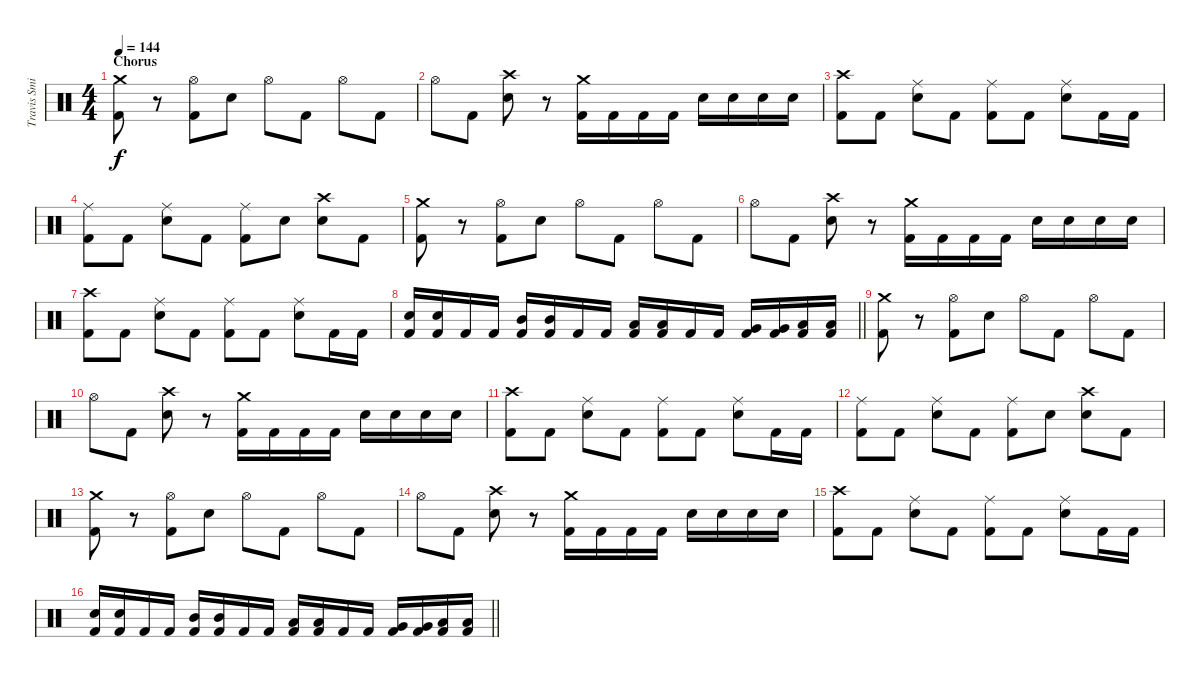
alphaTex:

\track ("Travis Smith" "Travis Smi") {instrument percussion}
\staff {score}
\articulation defaults
\ts (4 4)
\section ("" "Chorus")
\tempo 144
\clef neutral
\ks c
("Crash medium (hit)" "Kick (hit) 2").8{dy f} r.8 ("Hi-Hat (open)" "Kick (hit) 2").8 "Electric Snare (hit)".8 "Hi-Hat (open)".8 "Kick (hit) 2".8 "Hi-Hat (open)".8 "Kick (hit) 2".8 |
"Hi-Hat (open)".8 "Kick (hit) 2".8 ("Crash high (hit)" "Electric Snare (hit)").8 r.8 ("Crash medium (hit)" "Kick (hit) 2").16 "Kick (hit) 2".16 "Kick (hit) 2".16 "Kick (hit) 2".16 "Electric Snare (hit)".16 "Electric Snare (hit)".16 "Electric Snare (hit)".16 "Electric Snare (hit)".16 |
("Crash high (hit)" "Kick (hit) 2").8 "Kick (hit) 2".8 ("Ride (middle)" "Electric Snare (hit)").8 "Kick (hit) 2".8 ("Ride (middle)" "Kick (hit) 2").8 "Kick (hit) 2".8 ("Ride (middle)" "Electric Snare (hit)").8 "Kick (hit) 2".16 "Kick (hit) 2".16 |
("Ride (middle)" "Kick (hit) 2").8 "Kick (hit) 2".8 ("Ride (middle)" "Electric Snare (hit)").8 "Kick (hit) 2".8 ("Ride (middle)" "Kick (hit) 2").8 "Electric Snare (hit)".8 ("Crash high (hit)" "Electric Snare (hit)").8 "Kick (hit) 2".8 |
("Crash medium (hit)" "Kick (hit) 2").8 r.8 ("Hi-Hat (open)" "Kick (hit) 2").8 "Electric Snare (hit)".8 "Hi-Hat (open)".8 "Kick (hit) 2".8 "Hi-Hat (open)".8 "Kick (hit) 2".8 |
"Hi-Hat (open)".8 "Kick (hit) 2".8 ("Crash high (hit)" "Electric Snare (hit)").8 r.8 ("Crash medium (hit)" "Kick (hit) 2").16 "Kick (hit) 2".16 "Kick (hit) 2".16 "Kick (hit) 2".16 "Electric Snare (hit)".16 "Electric Snare (hit)".16 "Electric Snare (hit)".16 "Electric Snare (hit)".16 |
("Crash high (hit)" "Kick (hit) 2").8 "Kick (hit) 2".8 ("Ride (middle)" "Electric Snare (hit)").8 "Kick (hit) 2".8 ("Ride (middle)" "Kick (hit) 2").8 "Kick (hit) 2".8 ("Ride (middle)" "Electric Snare (hit)").8 "Kick (hit) 2".16 "Kick (hit) 2".16 |
\barLineRight lightlight
("Electric Snare (hit)" "Kick (hit) 2").16 ("Electric Snare (hit)" "Kick (hit) 2").16 "Kick (hit) 2".16 "Kick (hit) 2".16 ("Mid Tom (hit)" "Kick (hit) 2").16 ("Mid Tom (hit)" "Kick (hit) 2").16 "Kick (hit) 2".16 "Kick (hit) 2".16 ("Low Tom (hit)" "Kick (hit) 2").16 ("Low Tom (hit)" "Kick (hit) 2").16 "Kick (hit) 2".16 "Kick (hit) 2".16 ("Very Low Tom (hit)" "Kick (hit) 2").16 ("Very Low Tom (hit)" "Kick (hit) 2").16 ("Low Floor Tom (hit)" "Kick (hit) 2").16 ("Low Floor Tom (hit)" "Kick (hit) 2").16 |
("Crash medium (hit)" "Kick (hit) 2").8 r.8 ("Hi-Hat (open)" "Kick (hit) 2").8 "Electric Snare (hit)".8 "Hi-Hat (open)".8 "Kick (hit) 2".8 "Hi-Hat (open)".8 "Kick (hit) 2".8 |
"Hi-Hat (open)".8 "Kick (hit) 2".8 ("Crash high (hit)" "Electric Snare (hit)").8 r.8 ("Crash medium (hit)" "Kick (hit) 2").16 "Kick (hit) 2".16 "Kick (hit) 2".16 "Kick (hit) 2".16 "Electric Snare (hit)".16 "Electric Snare (hit)".16 "Electric Snare (hit)".16 "Electric Snare (hit)".16 |
("Crash high (hit)" "Kick (hit) 2").8 "Kick (hit) 2".8 ("Ride (middle)" "Electric Snare (hit)").8 "Kick (hit) 2".8 ("Ride (middle)" "Kick (hit) 2").8 "Kick (hit) 2".8 ("Ride (middle)" "Electric Snare (hit)").8 "Kick (hit) 2".16 "Kick (hit) 2".16 |
("Ride (middle)" "Kick (hit) 2").8 "Kick (hit) 2".8 ("Ride (middle)" "Electric Snare (hit)").8 "Kick (hit) 2".8 ("Ride (middle)" "Kick (hit) 2").8 "Electric Snare (hit)".8 ("Crash high (hit)" "Electric Snare (hit)").8 "Kick (hit) 2".8 |
("Crash medium (hit)" "Kick (hit) 2").8 r.8 ("Hi-Hat (open)" "Kick (hit) 2").8 "Electric Snare (hit)".8 "Hi-Hat (open)".8 "Kick (hit) 2".8 "Hi-Hat (open)".8 "Kick (hit) 2".8 |
"Hi-Hat (open)".8 "Kick (hit) 2".8 ("Crash high (hit)" "Electric Snare (hit)").8 r.8 ("Crash medium (hit)" "Kick (hit) 2").16 "Kick (hit) 2".16 "Kick (hit) 2".16 "Kick (hit) 2".16 "Electric Snare (hit)".16 "Electric Snare (hit)".16 "Electric Snare (hit)".16 "Electric Snare (hit)".16 |
("Crash high (hit)" "Kick (hit) 2").8 "Kick (hit) 2".8 ("Ride (middle)" "Electric Snare (hit)").8 "Kick (hit) 2".8 ("Ride (middle)" "Kick (hit) 2").8 "Kick (hit) 2".8 ("Ride (middle)" "Electric Snare (hit)").8 "Kick (hit) 2".16 "Kick (hit) 2".16 |
\barLineRight lightlight
("Electric Snare (hit)" "Kick (hit) 2").16 ("Electric Snare (hit)" "Kick (hit) 2").16 "Kick (hit) 2".16 "Kick (hit) 2".16 ("Mid Tom (hit)" "Kick (hit) 2").16 ("Mid Tom (hit)" "Kick (hit) 2").16 "Kick (hit) 2".16 "Kick (hit) 2".16 ("Low Tom (hit)" "Kick (hit) 2").16 ("Low Tom (hit)" "Kick (hit) 2").16 "Kick (hit) 2".16 "Kick (hit) 2".16 ("Very Low Tom (hit)" "Kick (hit) 2").16 ("Very Low Tom (hit)" "Kick (hit) 2").16 ("Low Floor Tom (hit)" "Kick (hit) 2").16 ("Low Floor Tom (hit)" "Kick (hit) 2").16
